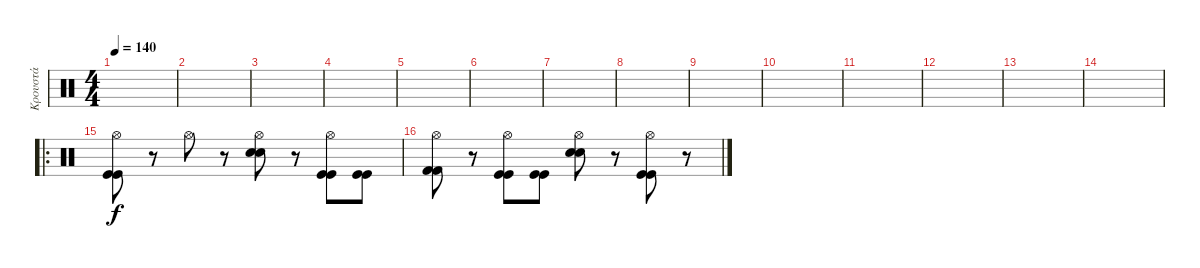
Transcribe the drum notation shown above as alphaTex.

\track ("Κρουστά" "Κρουστά") {instrument percussion}
\staff {score}
\articulation defaults
\ts (4 4)
\tempo 140
\clef neutral
\ks c
|
|
|
|
|
|
|
|
|
|
|
|
|
|
\ro
("Hi-Hat (open)" "Kick (hit)" "Kick (hit)").8 r.8 "Hi-Hat (open)".8 r.8 ("Hi-Hat (open)" "Electric Snare (hit)" "Electric Snare (hit)").8 r.8 ("Hi-Hat (open)" "Kick (hit)" "Kick (hit)").8 ("Kick (hit)" "Kick (hit)").8 |
("Hi-Hat (open)" "Kick (hit) 2" "Kick (hit) 2").8 r.8 ("Hi-Hat (open)" "Kick (hit)" "Kick (hit)").8 ("Kick (hit)" "Kick (hit)").8 ("Hi-Hat (open)" "Electric Snare (hit)" "Electric Snare (hit)").8 r.8 ("Hi-Hat (open)" "Kick (hit)" "Kick (hit)").8 r.8
